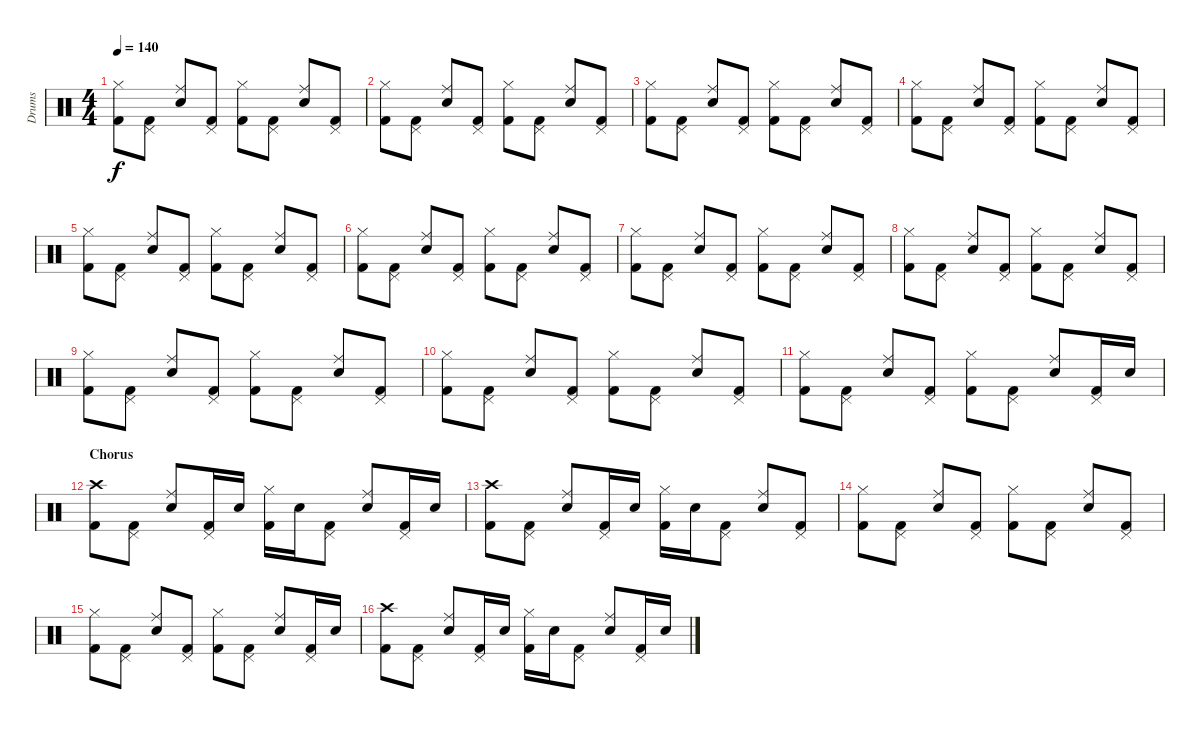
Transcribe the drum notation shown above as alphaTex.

\track ("Drums" "Drums") {instrument percussion}
\staff {score}
\articulation defaults
\ts (4 4)
\tempo 140
\clef neutral
\ks c
("Kick (hit) 2" "Hi-Hat (closed)").8{dy f} ("Kick (hit) 2" "Pedal Hi-Hat (hit)").8 ("Electric Snare (hit)" "Ride (middle)").8 ("Kick (hit) 2" "Pedal Hi-Hat (hit)").8 ("Kick (hit) 2" "Hi-Hat (closed)").8 ("Kick (hit) 2" "Pedal Hi-Hat (hit)").8 ("Electric Snare (hit)" "Ride (middle)").8 ("Kick (hit) 2" "Pedal Hi-Hat (hit)").8 |
("Kick (hit) 2" "Hi-Hat (closed)").8 ("Kick (hit) 2" "Pedal Hi-Hat (hit)").8 ("Electric Snare (hit)" "Ride (middle)").8 ("Kick (hit) 2" "Pedal Hi-Hat (hit)").8 ("Kick (hit) 2" "Hi-Hat (closed)").8 ("Kick (hit) 2" "Pedal Hi-Hat (hit)").8 ("Electric Snare (hit)" "Ride (middle)").8 ("Kick (hit) 2" "Pedal Hi-Hat (hit)").8 |
("Kick (hit) 2" "Hi-Hat (closed)").8 ("Kick (hit) 2" "Pedal Hi-Hat (hit)").8 ("Electric Snare (hit)" "Ride (middle)").8 ("Kick (hit) 2" "Pedal Hi-Hat (hit)").8 ("Kick (hit) 2" "Hi-Hat (closed)").8 ("Kick (hit) 2" "Pedal Hi-Hat (hit)").8 ("Electric Snare (hit)" "Ride (middle)").8 ("Kick (hit) 2" "Pedal Hi-Hat (hit)").8 |
("Kick (hit) 2" "Hi-Hat (closed)").8 ("Kick (hit) 2" "Pedal Hi-Hat (hit)").8 ("Electric Snare (hit)" "Ride (middle)").8 ("Kick (hit) 2" "Pedal Hi-Hat (hit)").8 ("Kick (hit) 2" "Hi-Hat (closed)").8 ("Kick (hit) 2" "Pedal Hi-Hat (hit)").8 ("Electric Snare (hit)" "Ride (middle)").8 ("Kick (hit) 2" "Pedal Hi-Hat (hit)").8 |
("Kick (hit) 2" "Hi-Hat (closed)").8 ("Kick (hit) 2" "Pedal Hi-Hat (hit)").8 ("Electric Snare (hit)" "Ride (middle)").8 ("Kick (hit) 2" "Pedal Hi-Hat (hit)").8 ("Kick (hit) 2" "Hi-Hat (closed)").8 ("Kick (hit) 2" "Pedal Hi-Hat (hit)").8 ("Electric Snare (hit)" "Ride (middle)").8 ("Kick (hit) 2" "Pedal Hi-Hat (hit)").8 |
("Kick (hit) 2" "Hi-Hat (closed)").8 ("Kick (hit) 2" "Pedal Hi-Hat (hit)").8 ("Electric Snare (hit)" "Ride (middle)").8 ("Kick (hit) 2" "Pedal Hi-Hat (hit)").8 ("Kick (hit) 2" "Hi-Hat (closed)").8 ("Kick (hit) 2" "Pedal Hi-Hat (hit)").8 ("Electric Snare (hit)" "Ride (middle)").8 ("Kick (hit) 2" "Pedal Hi-Hat (hit)").8 |
("Kick (hit) 2" "Hi-Hat (closed)").8 ("Kick (hit) 2" "Pedal Hi-Hat (hit)").8 ("Electric Snare (hit)" "Ride (middle)").8 ("Kick (hit) 2" "Pedal Hi-Hat (hit)").8 ("Kick (hit) 2" "Hi-Hat (closed)").8 ("Kick (hit) 2" "Pedal Hi-Hat (hit)").8 ("Electric Snare (hit)" "Ride (middle)").8 ("Kick (hit) 2" "Pedal Hi-Hat (hit)").8 |
("Kick (hit) 2" "Hi-Hat (closed)").8 ("Kick (hit) 2" "Pedal Hi-Hat (hit)").8 ("Electric Snare (hit)" "Ride (middle)").8 ("Kick (hit) 2" "Pedal Hi-Hat (hit)").8 ("Kick (hit) 2" "Hi-Hat (closed)").8 ("Kick (hit) 2" "Pedal Hi-Hat (hit)").8 ("Electric Snare (hit)" "Ride (middle)").8 ("Kick (hit) 2" "Pedal Hi-Hat (hit)").8 |
("Kick (hit) 2" "Hi-Hat (closed)").8 ("Kick (hit) 2" "Pedal Hi-Hat (hit)").8 ("Electric Snare (hit)" "Ride (middle)").8 ("Kick (hit) 2" "Pedal Hi-Hat (hit)").8 ("Kick (hit) 2" "Hi-Hat (closed)").8 ("Kick (hit) 2" "Pedal Hi-Hat (hit)").8 ("Electric Snare (hit)" "Ride (middle)").8 ("Kick (hit) 2" "Pedal Hi-Hat (hit)").8 |
("Kick (hit) 2" "Hi-Hat (closed)").8 ("Kick (hit) 2" "Pedal Hi-Hat (hit)").8 ("Electric Snare (hit)" "Ride (middle)").8 ("Kick (hit) 2" "Pedal Hi-Hat (hit)").8 ("Kick (hit) 2" "Hi-Hat (closed)").8 ("Kick (hit) 2" "Pedal Hi-Hat (hit)").8 ("Electric Snare (hit)" "Ride (middle)").8 ("Kick (hit) 2" "Pedal Hi-Hat (hit)").8 |
("Kick (hit) 2" "Hi-Hat (closed)").8 ("Kick (hit) 2" "Pedal Hi-Hat (hit)").8 ("Electric Snare (hit)" "Ride (middle)").8 ("Kick (hit) 2" "Pedal Hi-Hat (hit)").8 ("Kick (hit) 2" "Hi-Hat (closed)").8 ("Kick (hit) 2" "Pedal Hi-Hat (hit)").8 ("Electric Snare (hit)" "Ride (middle)").8 ("Kick (hit) 2" "Pedal Hi-Hat (hit)").16 "Electric Snare (hit)".16 |
\section ("" "Chorus")
("Kick (hit) 2" "Crash high (hit)").8 ("Kick (hit) 2" "Pedal Hi-Hat (hit)").8 ("Electric Snare (hit)" "Ride (middle)").8 ("Kick (hit) 2" "Pedal Hi-Hat (hit)").16 "Snare (hit) 2".16 ("Kick (hit) 2" "Hi-Hat (closed)").16 "Snare (hit) 2".16 ("Kick (hit) 2" "Pedal Hi-Hat (hit)").8 ("Electric Snare (hit)" "Ride (middle)").8 ("Kick (hit) 2" "Pedal Hi-Hat (hit)").16 "Electric Snare (hit)".16 |
("Kick (hit) 2" "Crash high (hit)").8 ("Kick (hit) 2" "Pedal Hi-Hat (hit)").8 ("Electric Snare (hit)" "Ride (middle)").8 ("Kick (hit) 2" "Pedal Hi-Hat (hit)").16 "Snare (hit) 2".16 ("Kick (hit) 2" "Hi-Hat (closed)").16 "Snare (hit) 2".16 ("Kick (hit) 2" "Pedal Hi-Hat (hit)").8 ("Electric Snare (hit)" "Ride (middle)").8 ("Kick (hit) 2" "Pedal Hi-Hat (hit)").8 |
("Kick (hit) 2" "Hi-Hat (closed)").8 ("Kick (hit) 2" "Pedal Hi-Hat (hit)").8 ("Electric Snare (hit)" "Ride (middle)").8 ("Kick (hit) 2" "Pedal Hi-Hat (hit)").8 ("Kick (hit) 2" "Hi-Hat (closed)").8 ("Kick (hit) 2" "Pedal Hi-Hat (hit)").8 ("Electric Snare (hit)" "Ride (middle)").8 ("Kick (hit) 2" "Pedal Hi-Hat (hit)").8 |
("Kick (hit) 2" "Hi-Hat (closed)").8 ("Kick (hit) 2" "Pedal Hi-Hat (hit)").8 ("Electric Snare (hit)" "Ride (middle)").8 ("Kick (hit) 2" "Pedal Hi-Hat (hit)").8 ("Kick (hit) 2" "Hi-Hat (closed)").8 ("Kick (hit) 2" "Pedal Hi-Hat (hit)").8 ("Electric Snare (hit)" "Ride (middle)").8 ("Kick (hit) 2" "Pedal Hi-Hat (hit)").16 "Electric Snare (hit)".16 |
("Kick (hit) 2" "Crash high (hit)").8 ("Kick (hit) 2" "Pedal Hi-Hat (hit)").8 ("Electric Snare (hit)" "Ride (middle)").8 ("Kick (hit) 2" "Pedal Hi-Hat (hit)").16 "Snare (hit) 2".16 ("Kick (hit) 2" "Hi-Hat (closed)").16 "Snare (hit) 2".16 ("Kick (hit) 2" "Pedal Hi-Hat (hit)").8 ("Electric Snare (hit)" "Ride (middle)").8 ("Kick (hit) 2" "Pedal Hi-Hat (hit)").16 "Electric Snare (hit)".16
